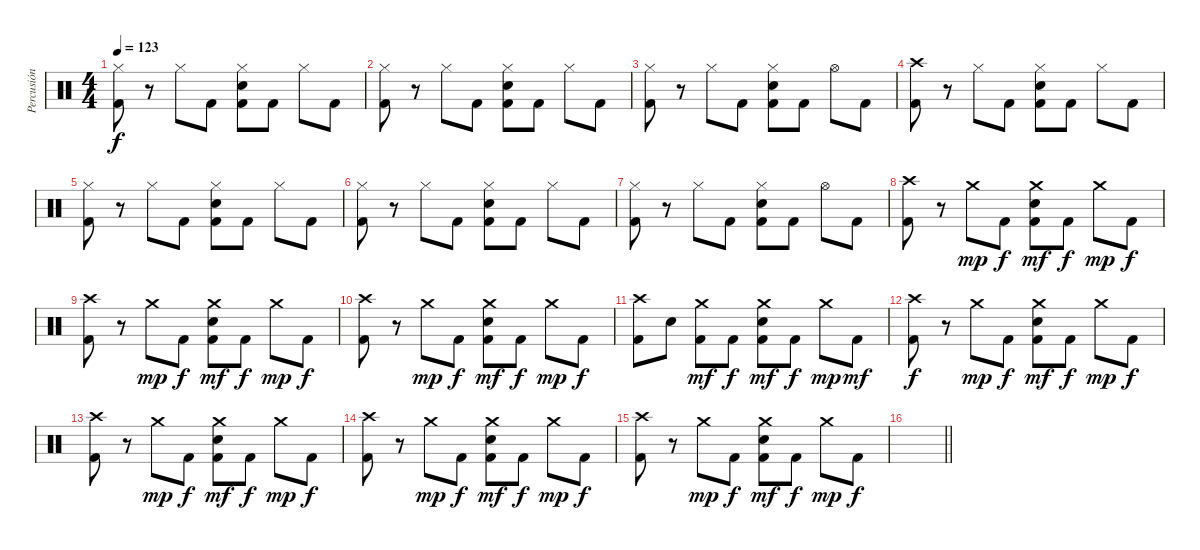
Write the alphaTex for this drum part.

\track ("Percusión" "Percusión") {instrument percussion}
\staff {score}
\articulation defaults
\ts (4 4)
\tempo 123
\clef neutral
\ks c
("Hi-Hat (closed)" "Kick (hit) 2").8{dy f} r.8 "Hi-Hat (closed)".8 "Kick (hit) 2".8 ("Hi-Hat (closed)" "Snare (hit) 2" "Kick (hit) 2").8 "Kick (hit) 2".8 "Hi-Hat (closed)".8 "Kick (hit) 2".8 |
("Hi-Hat (closed)" "Kick (hit) 2").8 r.8 "Hi-Hat (closed)".8 "Kick (hit) 2".8 ("Hi-Hat (closed)" "Snare (hit) 2" "Kick (hit) 2").8 "Kick (hit) 2".8 "Hi-Hat (closed)".8 "Kick (hit) 2".8 |
("Hi-Hat (closed)" "Kick (hit) 2").8 r.8 "Hi-Hat (closed)".8 "Kick (hit) 2".8 ("Hi-Hat (closed)" "Snare (hit) 2" "Kick (hit) 2").8 "Kick (hit) 2".8 "Hi-Hat (open)".8 "Kick (hit) 2".8 |
("Crash high (hit)" "Kick (hit) 2").8 r.8 "Hi-Hat (closed)".8 "Kick (hit) 2".8 ("Hi-Hat (closed)" "Snare (hit) 2" "Kick (hit) 2").8 "Kick (hit) 2".8 "Hi-Hat (closed)".8 "Kick (hit) 2".8 |
("Hi-Hat (closed)" "Kick (hit) 2").8 r.8 "Hi-Hat (closed)".8 "Kick (hit) 2".8 ("Hi-Hat (closed)" "Snare (hit) 2" "Kick (hit) 2").8 "Kick (hit) 2".8 "Hi-Hat (closed)".8 "Kick (hit) 2".8 |
("Hi-Hat (closed)" "Kick (hit) 2").8 r.8 "Hi-Hat (closed)".8 "Kick (hit) 2".8 ("Hi-Hat (closed)" "Snare (hit) 2" "Kick (hit) 2").8 "Kick (hit) 2".8 "Hi-Hat (closed)".8 "Kick (hit) 2".8 |
("Hi-Hat (closed)" "Kick (hit) 2").8 r.8 "Hi-Hat (closed)".8 "Kick (hit) 2".8 ("Hi-Hat (closed)" "Snare (hit) 2" "Kick (hit) 2").8 "Kick (hit) 2".8 "Hi-Hat (open)".8 "Kick (hit) 2".8 |
("Crash high (hit)" "Kick (hit) 2").8 r.8 "Crash medium (hit)".8{dy mp} "Kick (hit) 2".8{dy f} ("Crash medium (hit)" "Snare (hit) 2" "Kick (hit) 2").8{dy mf} "Kick (hit) 2".8{dy f} "Crash medium (hit)".8{dy mp} "Kick (hit) 2".8{dy f} |
("Crash high (hit)" "Kick (hit) 2").8 r.8 "Crash medium (hit)".8{dy mp} "Kick (hit) 2".8{dy f} ("Crash medium (hit)" "Snare (hit) 2" "Kick (hit) 2").8{dy mf} "Kick (hit) 2".8{dy f} "Crash medium (hit)".8{dy mp} "Kick (hit) 2".8{dy f} |
("Crash high (hit)" "Kick (hit) 2").8 r.8 "Crash medium (hit)".8{dy mp} "Kick (hit) 2".8{dy f} ("Crash medium (hit)" "Snare (hit) 2" "Kick (hit) 2").8{dy mf} "Kick (hit) 2".8{dy f} "Crash medium (hit)".8{dy mp} "Kick (hit) 2".8{dy f} |
("Crash high (hit)" "Kick (hit) 2").8 "Snare (hit) 2".8 ("Crash medium (hit)" "Kick (hit) 2").8{dy mf} "Kick (hit) 2".8{dy f} ("Crash medium (hit)" "Snare (hit) 2" "Kick (hit) 2").8{dy mf} "Kick (hit) 2".8{dy f} "Crash medium (hit)".8{dy mp} "Kick (hit) 2".8{dy mf} |
("Crash high (hit)" "Kick (hit) 2").8{dy f} r.8 "Crash medium (hit)".8{dy mp} "Kick (hit) 2".8{dy f} ("Crash medium (hit)" "Snare (hit) 2" "Kick (hit) 2").8{dy mf} "Kick (hit) 2".8{dy f} "Crash medium (hit)".8{dy mp} "Kick (hit) 2".8{dy f} |
("Crash high (hit)" "Kick (hit) 2").8 r.8 "Crash medium (hit)".8{dy mp} "Kick (hit) 2".8{dy f} ("Crash medium (hit)" "Snare (hit) 2" "Kick (hit) 2").8{dy mf} "Kick (hit) 2".8{dy f} "Crash medium (hit)".8{dy mp} "Kick (hit) 2".8{dy f} |
("Crash high (hit)" "Kick (hit) 2").8 r.8 "Crash medium (hit)".8{dy mp} "Kick (hit) 2".8{dy f} ("Crash medium (hit)" "Snare (hit) 2" "Kick (hit) 2").8{dy mf} "Kick (hit) 2".8{dy f} "Crash medium (hit)".8{dy mp} "Kick (hit) 2".8{dy f} |
("Crash high (hit)" "Kick (hit) 2").8 r.8 "Crash medium (hit)".8{dy mp} "Kick (hit) 2".8{dy f} ("Crash medium (hit)" "Snare (hit) 2" "Kick (hit) 2").8{dy mf} "Kick (hit) 2".8{dy f} "Crash medium (hit)".8{dy mp} "Kick (hit) 2".8{dy f} |
\barLineRight lightlight
